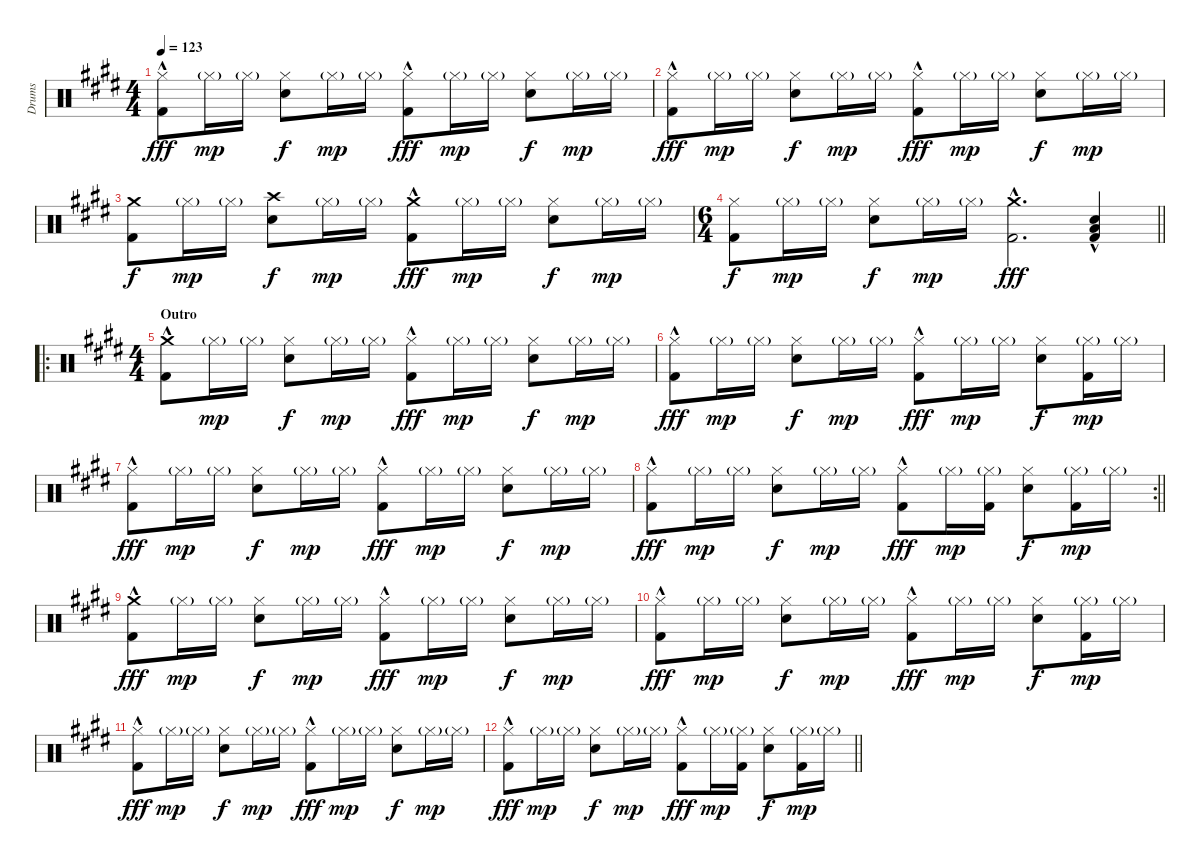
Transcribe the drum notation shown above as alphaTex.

\track ("Drums" "Drums") {instrument percussion}
\staff {score}
\articulation defaults
\ts (4 4)
\tempo 123
\clef neutral
\ks c#minor
("Hi-Hat (closed)"{hac} "Kick (hit) 2").8{dy fff} "Hi-Hat (closed)"{g}.16{dy mp} "Hi-Hat (closed)"{g}.16 ("Hi-Hat (closed)" "Snare (hit) 2").8{dy f} "Hi-Hat (closed)"{g}.16{dy mp} "Hi-Hat (closed)"{g}.16 ("Hi-Hat (closed)"{hac} "Kick (hit) 2"{hac}).8{dy fff} "Hi-Hat (closed)"{g}.16{dy mp} "Hi-Hat (closed)"{g}.16 ("Hi-Hat (closed)" "Snare (hit) 2").8{dy f} "Hi-Hat (closed)"{g}.16{dy mp} "Hi-Hat (closed)"{g}.16 |
("Hi-Hat (closed)"{hac} "Kick (hit) 2").8{dy fff} "Hi-Hat (closed)"{g}.16{dy mp} "Hi-Hat (closed)"{g}.16 ("Hi-Hat (closed)" "Snare (hit) 2").8{dy f} "Hi-Hat (closed)"{g}.16{dy mp} "Hi-Hat (closed)"{g}.16 ("Hi-Hat (closed)"{hac} "Kick (hit) 2"{hac}).8{dy fff} "Hi-Hat (closed)"{g}.16{dy mp} "Hi-Hat (closed)"{g}.16 ("Hi-Hat (closed)" "Snare (hit) 2").8{dy f} "Hi-Hat (closed)"{g}.16{dy mp} "Hi-Hat (closed)"{g}.16 |
("Crash medium (hit)" "Kick (hit) 2").8{dy f} "Hi-Hat (closed)"{g}.16{dy mp} "Hi-Hat (closed)"{g}.16 ("Crash high (hit)" "Snare (hit) 2").8{dy f} "Hi-Hat (closed)"{g}.16{dy mp} "Hi-Hat (closed)"{g}.16 ("Crash medium (hit)" "Kick (hit) 2"{hac}).8{dy fff} "Hi-Hat (closed)"{g}.16{dy mp} "Hi-Hat (closed)"{g}.16 ("Hi-Hat (closed)" "Snare (hit) 2").8{dy f} "Hi-Hat (closed)"{g}.16{dy mp} "Hi-Hat (closed)"{g}.16 |
\ts (6 4)
\barLineRight lightlight
("Hi-Hat (closed)" "Kick (hit) 2").8{dy f} "Hi-Hat (closed)"{g}.16{dy mp} "Hi-Hat (closed)"{g}.16 ("Hi-Hat (closed)" "Snare (hit) 2").8{dy f} "Hi-Hat (closed)"{g}.16{dy mp} "Hi-Hat (closed)"{g}.16 ("Crash medium (hit)" "Kick (hit) 2"{hac}).2{d dy fff} ("Low Floor Tom (hit)"{hac} "Snare (hit) 2"{hac} "Kick (hit) 2"{hac}).4 |
\ro
\ts (4 4)
\section ("" "Outro")
("Crash medium (hit)" "Kick (hit) 2"{hac}).8 "Hi-Hat (closed)"{g}.16{dy mp} "Hi-Hat (closed)"{g}.16 ("Hi-Hat (closed)" "Snare (hit) 2").8{dy f} "Hi-Hat (closed)"{g}.16{dy mp} "Hi-Hat (closed)"{g}.16 ("Hi-Hat (closed)"{hac} "Kick (hit) 2"{hac}).8{dy fff} "Hi-Hat (closed)"{g}.16{dy mp} "Hi-Hat (closed)"{g}.16 ("Hi-Hat (closed)" "Snare (hit) 2").8{dy f} "Hi-Hat (closed)"{g}.16{dy mp} "Hi-Hat (closed)"{g}.16 |
("Hi-Hat (closed)"{hac} "Kick (hit) 2").8{dy fff} "Hi-Hat (closed)"{g}.16{dy mp} "Hi-Hat (closed)"{g}.16 ("Hi-Hat (closed)" "Snare (hit) 2").8{dy f} "Hi-Hat (closed)"{g}.16{dy mp} "Hi-Hat (closed)"{g}.16 ("Hi-Hat (closed)"{hac} "Kick (hit) 2"{hac}).8{dy fff} "Hi-Hat (closed)"{g}.16{dy mp} "Hi-Hat (closed)"{g}.16 ("Hi-Hat (closed)" "Snare (hit) 2").8{dy f} ("Hi-Hat (closed)"{g} "Kick (hit) 2").16{dy mp} "Hi-Hat (closed)"{g}.16 |
("Hi-Hat (closed)"{hac} "Kick (hit) 2").8{dy fff} "Hi-Hat (closed)"{g}.16{dy mp} "Hi-Hat (closed)"{g}.16 ("Hi-Hat (closed)" "Snare (hit) 2").8{dy f} "Hi-Hat (closed)"{g}.16{dy mp} "Hi-Hat (closed)"{g}.16 ("Hi-Hat (closed)"{hac} "Kick (hit) 2"{hac}).8{dy fff} "Hi-Hat (closed)"{g}.16{dy mp} "Hi-Hat (closed)"{g}.16 ("Hi-Hat (closed)" "Snare (hit) 2").8{dy f} "Hi-Hat (closed)"{g}.16{dy mp} "Hi-Hat (closed)"{g}.16 |
\rc 2
\barLineRight lightlight
("Hi-Hat (closed)"{hac} "Kick (hit) 2").8{dy fff} "Hi-Hat (closed)"{g}.16{dy mp} "Hi-Hat (closed)"{g}.16 ("Hi-Hat (closed)" "Snare (hit) 2").8{dy f} "Hi-Hat (closed)"{g}.16{dy mp} "Hi-Hat (closed)"{g}.16 ("Hi-Hat (closed)"{hac} "Kick (hit) 2"{hac}).8{dy fff} "Hi-Hat (closed)"{g}.16{dy mp} ("Hi-Hat (closed)"{g} "Kick (hit) 2").16 ("Hi-Hat (closed)" "Snare (hit) 2").8{dy f} ("Hi-Hat (closed)"{g} "Kick (hit) 2").16{dy mp} "Hi-Hat (closed)"{g}.16 |
("Crash medium (hit)" "Kick (hit) 2"{hac}).8{dy fff} "Hi-Hat (closed)"{g}.16{dy mp} "Hi-Hat (closed)"{g}.16 ("Hi-Hat (closed)" "Snare (hit) 2").8{dy f} "Hi-Hat (closed)"{g}.16{dy mp} "Hi-Hat (closed)"{g}.16 ("Hi-Hat (closed)"{hac} "Kick (hit) 2"{hac}).8{dy fff} "Hi-Hat (closed)"{g}.16{dy mp} "Hi-Hat (closed)"{g}.16 ("Hi-Hat (closed)" "Snare (hit) 2").8{dy f} "Hi-Hat (closed)"{g}.16{dy mp} "Hi-Hat (closed)"{g}.16 |
("Hi-Hat (closed)"{hac} "Kick (hit) 2").8{dy fff} "Hi-Hat (closed)"{g}.16{dy mp} "Hi-Hat (closed)"{g}.16 ("Hi-Hat (closed)" "Snare (hit) 2").8{dy f} "Hi-Hat (closed)"{g}.16{dy mp} "Hi-Hat (closed)"{g}.16 ("Hi-Hat (closed)"{hac} "Kick (hit) 2"{hac}).8{dy fff} "Hi-Hat (closed)"{g}.16{dy mp} "Hi-Hat (closed)"{g}.16 ("Hi-Hat (closed)" "Snare (hit) 2").8{dy f} ("Hi-Hat (closed)"{g} "Kick (hit) 2").16{dy mp} "Hi-Hat (closed)"{g}.16 |
("Hi-Hat (closed)"{hac} "Kick (hit) 2").8{dy fff} "Hi-Hat (closed)"{g}.16{dy mp} "Hi-Hat (closed)"{g}.16 ("Hi-Hat (closed)" "Snare (hit) 2").8{dy f} "Hi-Hat (closed)"{g}.16{dy mp} "Hi-Hat (closed)"{g}.16 ("Hi-Hat (closed)"{hac} "Kick (hit) 2"{hac}).8{dy fff} "Hi-Hat (closed)"{g}.16{dy mp} "Hi-Hat (closed)"{g}.16 ("Hi-Hat (closed)" "Snare (hit) 2").8{dy f} "Hi-Hat (closed)"{g}.16{dy mp} "Hi-Hat (closed)"{g}.16 |
\barLineRight lightlight
("Hi-Hat (closed)"{hac} "Kick (hit) 2").8{dy fff} "Hi-Hat (closed)"{g}.16{dy mp} "Hi-Hat (closed)"{g}.16 ("Hi-Hat (closed)" "Snare (hit) 2").8{dy f} "Hi-Hat (closed)"{g}.16{dy mp} "Hi-Hat (closed)"{g}.16 ("Hi-Hat (closed)"{hac} "Kick (hit) 2"{hac}).8{dy fff} "Hi-Hat (closed)"{g}.16{dy mp} ("Hi-Hat (closed)"{g} "Kick (hit) 2").16 ("Hi-Hat (closed)" "Snare (hit) 2").8{dy f} ("Hi-Hat (closed)"{g} "Kick (hit) 2").16{dy mp} "Hi-Hat (closed)"{g}.16
